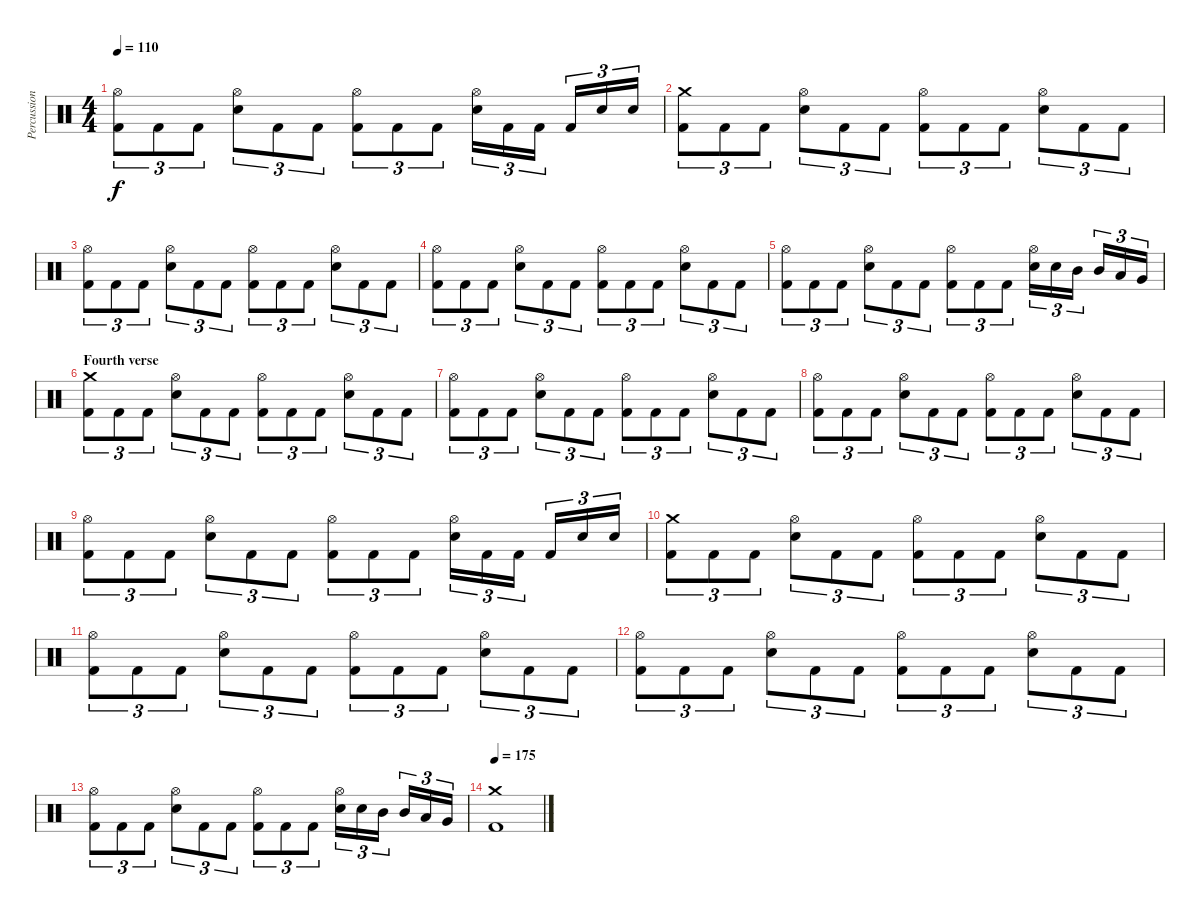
\track ("Percussion" "Percussion") {instrument percussion}
\staff {score}
\articulation defaults
\ts (4 4)
\tempo 110
\clef neutral
\ks c
("Hi-Hat (open)" "Kick (hit) 2").8{tu (3 2) dy f} "Kick (hit) 2".8{tu (3 2)} "Kick (hit) 2".8{tu (3 2)} ("Hi-Hat (open)" "Snare (hit) 2").8{tu (3 2)} "Kick (hit) 2".8{tu (3 2)} "Kick (hit) 2".8{tu (3 2)} ("Hi-Hat (open)" "Kick (hit) 2").8{tu (3 2)} "Kick (hit) 2".8{tu (3 2)} "Kick (hit) 2".8{tu (3 2)} ("Hi-Hat (open)" "Snare (hit) 2").16{tu (3 2)} "Kick (hit) 2".16{tu (3 2)} "Kick (hit) 2".16{tu (3 2)} "Kick (hit) 2".16{tu (3 2)} "Snare (hit) 2".16{tu (3 2)} "Snare (hit) 2".16{tu (3 2)} |
("Crash medium (hit)" "Kick (hit) 2").8{tu (3 2)} "Kick (hit) 2".8{tu (3 2)} "Kick (hit) 2".8{tu (3 2)} ("Hi-Hat (open)" "Snare (hit) 2").8{tu (3 2)} "Kick (hit) 2".8{tu (3 2)} "Kick (hit) 2".8{tu (3 2)} ("Hi-Hat (open)" "Kick (hit) 2").8{tu (3 2)} "Kick (hit) 2".8{tu (3 2)} "Kick (hit) 2".8{tu (3 2)} ("Hi-Hat (open)" "Snare (hit) 2").8{tu (3 2)} "Kick (hit) 2".8{tu (3 2)} "Kick (hit) 2".8{tu (3 2)} |
("Hi-Hat (open)" "Kick (hit) 2").8{tu (3 2)} "Kick (hit) 2".8{tu (3 2)} "Kick (hit) 2".8{tu (3 2)} ("Hi-Hat (open)" "Snare (hit) 2").8{tu (3 2)} "Kick (hit) 2".8{tu (3 2)} "Kick (hit) 2".8{tu (3 2)} ("Hi-Hat (open)" "Kick (hit) 2").8{tu (3 2)} "Kick (hit) 2".8{tu (3 2)} "Kick (hit) 2".8{tu (3 2)} ("Hi-Hat (open)" "Snare (hit) 2").8{tu (3 2)} "Kick (hit) 2".8{tu (3 2)} "Kick (hit) 2".8{tu (3 2)} |
("Hi-Hat (open)" "Kick (hit) 2").8{tu (3 2)} "Kick (hit) 2".8{tu (3 2)} "Kick (hit) 2".8{tu (3 2)} ("Hi-Hat (open)" "Snare (hit) 2").8{tu (3 2)} "Kick (hit) 2".8{tu (3 2)} "Kick (hit) 2".8{tu (3 2)} ("Hi-Hat (open)" "Kick (hit) 2").8{tu (3 2)} "Kick (hit) 2".8{tu (3 2)} "Kick (hit) 2".8{tu (3 2)} ("Hi-Hat (open)" "Snare (hit) 2").8{tu (3 2)} "Kick (hit) 2".8{tu (3 2)} "Kick (hit) 2".8{tu (3 2)} |
("Hi-Hat (open)" "Kick (hit) 2").8{tu (3 2)} "Kick (hit) 2".8{tu (3 2)} "Kick (hit) 2".8{tu (3 2)} ("Hi-Hat (open)" "Snare (hit) 2").8{tu (3 2)} "Kick (hit) 2".8{tu (3 2)} "Kick (hit) 2".8{tu (3 2)} ("Hi-Hat (open)" "Kick (hit) 2").8{tu (3 2)} "Kick (hit) 2".8{tu (3 2)} "Kick (hit) 2".8{tu (3 2)} ("Hi-Hat (open)" "Snare (hit) 2").16{tu (3 2)} "Snare (hit) 2".16{tu (3 2)} "Mid Tom (hit)".16{tu (3 2)} "Mid Tom (hit)".16{tu (3 2)} "Low Tom (hit)".16{tu (3 2)} "Very Low Tom (hit)".16{tu (3 2)} |
\section ("" "Fourth verse")
("Crash medium (hit)" "Kick (hit) 2").8{tu (3 2)} "Kick (hit) 2".8{tu (3 2)} "Kick (hit) 2".8{tu (3 2)} ("Hi-Hat (open)" "Snare (hit) 2").8{tu (3 2)} "Kick (hit) 2".8{tu (3 2)} "Kick (hit) 2".8{tu (3 2)} ("Hi-Hat (open)" "Kick (hit) 2").8{tu (3 2)} "Kick (hit) 2".8{tu (3 2)} "Kick (hit) 2".8{tu (3 2)} ("Hi-Hat (open)" "Snare (hit) 2").8{tu (3 2)} "Kick (hit) 2".8{tu (3 2)} "Kick (hit) 2".8{tu (3 2)} |
("Hi-Hat (open)" "Kick (hit) 2").8{tu (3 2)} "Kick (hit) 2".8{tu (3 2)} "Kick (hit) 2".8{tu (3 2)} ("Hi-Hat (open)" "Snare (hit) 2").8{tu (3 2)} "Kick (hit) 2".8{tu (3 2)} "Kick (hit) 2".8{tu (3 2)} ("Hi-Hat (open)" "Kick (hit) 2").8{tu (3 2)} "Kick (hit) 2".8{tu (3 2)} "Kick (hit) 2".8{tu (3 2)} ("Hi-Hat (open)" "Snare (hit) 2").8{tu (3 2)} "Kick (hit) 2".8{tu (3 2)} "Kick (hit) 2".8{tu (3 2)} |
("Hi-Hat (open)" "Kick (hit) 2").8{tu (3 2)} "Kick (hit) 2".8{tu (3 2)} "Kick (hit) 2".8{tu (3 2)} ("Hi-Hat (open)" "Snare (hit) 2").8{tu (3 2)} "Kick (hit) 2".8{tu (3 2)} "Kick (hit) 2".8{tu (3 2)} ("Hi-Hat (open)" "Kick (hit) 2").8{tu (3 2)} "Kick (hit) 2".8{tu (3 2)} "Kick (hit) 2".8{tu (3 2)} ("Hi-Hat (open)" "Snare (hit) 2").8{tu (3 2)} "Kick (hit) 2".8{tu (3 2)} "Kick (hit) 2".8{tu (3 2)} |
("Hi-Hat (open)" "Kick (hit) 2").8{tu (3 2)} "Kick (hit) 2".8{tu (3 2)} "Kick (hit) 2".8{tu (3 2)} ("Hi-Hat (open)" "Snare (hit) 2").8{tu (3 2)} "Kick (hit) 2".8{tu (3 2)} "Kick (hit) 2".8{tu (3 2)} ("Hi-Hat (open)" "Kick (hit) 2").8{tu (3 2)} "Kick (hit) 2".8{tu (3 2)} "Kick (hit) 2".8{tu (3 2)} ("Hi-Hat (open)" "Snare (hit) 2").16{tu (3 2)} "Kick (hit) 2".16{tu (3 2)} "Kick (hit) 2".16{tu (3 2)} "Kick (hit) 2".16{tu (3 2)} "Snare (hit) 2".16{tu (3 2)} "Snare (hit) 2".16{tu (3 2)} |
("Crash medium (hit)" "Kick (hit) 2").8{tu (3 2)} "Kick (hit) 2".8{tu (3 2)} "Kick (hit) 2".8{tu (3 2)} ("Hi-Hat (open)" "Snare (hit) 2").8{tu (3 2)} "Kick (hit) 2".8{tu (3 2)} "Kick (hit) 2".8{tu (3 2)} ("Hi-Hat (open)" "Kick (hit) 2").8{tu (3 2)} "Kick (hit) 2".8{tu (3 2)} "Kick (hit) 2".8{tu (3 2)} ("Hi-Hat (open)" "Snare (hit) 2").8{tu (3 2)} "Kick (hit) 2".8{tu (3 2)} "Kick (hit) 2".8{tu (3 2)} |
("Hi-Hat (open)" "Kick (hit) 2").8{tu (3 2)} "Kick (hit) 2".8{tu (3 2)} "Kick (hit) 2".8{tu (3 2)} ("Hi-Hat (open)" "Snare (hit) 2").8{tu (3 2)} "Kick (hit) 2".8{tu (3 2)} "Kick (hit) 2".8{tu (3 2)} ("Hi-Hat (open)" "Kick (hit) 2").8{tu (3 2)} "Kick (hit) 2".8{tu (3 2)} "Kick (hit) 2".8{tu (3 2)} ("Hi-Hat (open)" "Snare (hit) 2").8{tu (3 2)} "Kick (hit) 2".8{tu (3 2)} "Kick (hit) 2".8{tu (3 2)} |
("Hi-Hat (open)" "Kick (hit) 2").8{tu (3 2)} "Kick (hit) 2".8{tu (3 2)} "Kick (hit) 2".8{tu (3 2)} ("Hi-Hat (open)" "Snare (hit) 2").8{tu (3 2)} "Kick (hit) 2".8{tu (3 2)} "Kick (hit) 2".8{tu (3 2)} ("Hi-Hat (open)" "Kick (hit) 2").8{tu (3 2)} "Kick (hit) 2".8{tu (3 2)} "Kick (hit) 2".8{tu (3 2)} ("Hi-Hat (open)" "Snare (hit) 2").8{tu (3 2)} "Kick (hit) 2".8{tu (3 2)} "Kick (hit) 2".8{tu (3 2)} |
("Hi-Hat (open)" "Kick (hit) 2").8{tu (3 2)} "Kick (hit) 2".8{tu (3 2)} "Kick (hit) 2".8{tu (3 2)} ("Hi-Hat (open)" "Snare (hit) 2").8{tu (3 2)} "Kick (hit) 2".8{tu (3 2)} "Kick (hit) 2".8{tu (3 2)} ("Hi-Hat (open)" "Kick (hit) 2").8{tu (3 2)} "Kick (hit) 2".8{tu (3 2)} "Kick (hit) 2".8{tu (3 2)} ("Hi-Hat (open)" "Snare (hit) 2").16{tu (3 2)} "Snare (hit) 2".16{tu (3 2)} "Mid Tom (hit)".16{tu (3 2)} "Mid Tom (hit)".16{tu (3 2)} "Low Tom (hit)".16{tu (3 2)} "Very Low Tom (hit)".16{tu (3 2)} |
\tempo 175
("Crash medium (hit)" "Kick (hit) 2").1
